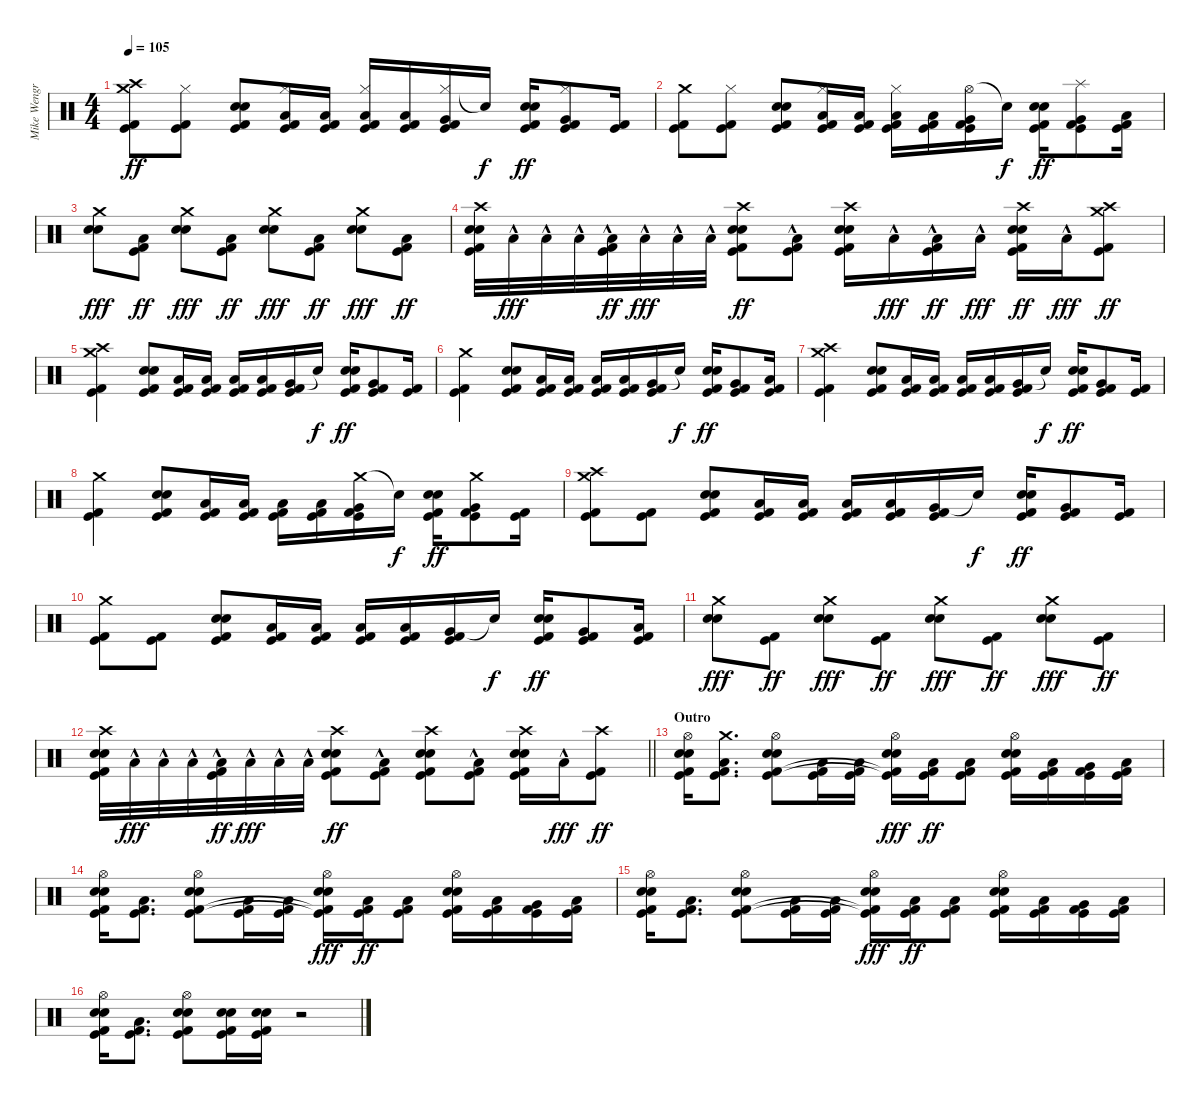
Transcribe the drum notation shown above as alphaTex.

\track ("Mike Wengren (Drums)" "Mike Wengr") {instrument percussion}
\staff {score}
\articulation defaults
\ts (4 4)
\tempo 105
\clef neutral
\ks c
("Crash medium (hit)" "Crash high (hit)" "Kick (hit) 2" "Kick (hit)").8{dy ff} ("Hi-Hat (closed)" "Kick (hit) 2" "Kick (hit)").8 ("Electric Snare (hit)" "Snare (hit) 2" "Kick (hit) 2" "Kick (hit)").8 ("Hi-Hat (closed)" "Low Floor Tom (hit)" "Kick (hit) 2" "Kick (hit)").16 ("Low Floor Tom (hit)" "Kick (hit) 2" "Kick (hit)").16 ("Hi-Hat (closed)" "Low Floor Tom (hit)" "Kick (hit) 2" "Kick (hit)").16 ("Low Floor Tom (hit)" "Kick (hit) 2" "Kick (hit)").16 ("Hi-Hat (closed)" "Very Low Tom (hit)" "Kick (hit) 2" "Kick (hit)").16 "Snare (hit)"{t}.16{dy f} ("Electric Snare (hit)" "Snare (hit) 2" "Kick (hit) 2" "Kick (hit)").16{dy ff} ("Hi-Hat (closed)" "Very Low Tom (hit)" "Kick (hit) 2" "Kick (hit)").8 ("Kick (hit) 2" "Kick (hit)").16 |
("Crash medium (hit)" "Kick (hit) 2" "Kick (hit)").8 ("Hi-Hat (closed)" "Kick (hit) 2" "Kick (hit)").8 ("Electric Snare (hit)" "Snare (hit) 2" "Kick (hit) 2" "Kick (hit)").8 ("Hi-Hat (closed)" "Low Floor Tom (hit)" "Kick (hit) 2" "Kick (hit)").16 ("Low Floor Tom (hit)" "Kick (hit) 2" "Kick (hit)").16 ("Hi-Hat (closed)" "Low Floor Tom (hit)" "Kick (hit) 2" "Kick (hit)").16 ("Low Floor Tom (hit)" "Kick (hit) 2" "Kick (hit)").16 ("Hi-Hat (open)" "Very Low Tom (hit)" "Kick (hit) 2" "Kick (hit)").16 "Snare (hit)"{t}.16{dy f} ("Electric Snare (hit)" "Snare (hit) 2" "Kick (hit) 2" "Kick (hit)").16{dy ff} ("Splash (hit)" "Very Low Tom (hit)" "Kick (hit) 2" "Kick (hit)").8 ("Low Floor Tom (hit)" "Kick (hit) 2" "Kick (hit)").16 |
("Crash medium (hit)" "Electric Snare (hit)" "Snare (hit) 2").8{dy fff} ("Low Floor Tom (hit)" "Kick (hit) 2" "Kick (hit)").8{dy ff} ("Crash medium (hit)" "Electric Snare (hit)" "Snare (hit) 2").8{dy fff} ("Low Floor Tom (hit)" "Kick (hit) 2" "Kick (hit)").8{dy ff} ("Crash medium (hit)" "Electric Snare (hit)" "Snare (hit) 2").8{dy fff} ("Low Floor Tom (hit)" "Kick (hit) 2" "Kick (hit)").8{dy ff} ("Crash medium (hit)" "Electric Snare (hit)" "Snare (hit) 2").8{dy fff} ("Low Floor Tom (hit)" "Kick (hit) 2" "Kick (hit)").8{dy ff} |
("Crash high (hit)" "Electric Snare (hit)" "Snare (hit) 2" "Kick (hit) 2" "Kick (hit)").32 "Low Floor Tom (hit)"{hac}.32{dy fff} "Low Floor Tom (hit)"{hac}.32 "Low Floor Tom (hit)"{hac}.32 ("Low Floor Tom (hit)"{hac} "Kick (hit) 2" "Kick (hit)").32{dy ff} "Low Floor Tom (hit)"{hac}.32{dy fff} "Low Floor Tom (hit)"{hac}.32 "Low Floor Tom (hit)"{hac}.32 ("Crash high (hit)" "Electric Snare (hit)" "Snare (hit) 2" "Kick (hit) 2" "Kick (hit)").8{dy ff} ("Low Floor Tom (hit)"{hac} "Kick (hit) 2" "Kick (hit)").8 ("Crash high (hit)" "Electric Snare (hit)" "Snare (hit) 2" "Kick (hit) 2" "Kick (hit)").16 "Low Floor Tom (hit)"{hac}.16{dy fff} ("Low Floor Tom (hit)"{hac} "Kick (hit) 2" "Kick (hit)").16{dy ff} "Low Floor Tom (hit)"{hac}.16{dy fff} ("Crash high (hit)" "Electric Snare (hit)" "Snare (hit) 2" "Kick (hit) 2" "Kick (hit)").16{dy ff} "Low Floor Tom (hit)"{hac}.16{dy fff} ("Crash medium (hit)" "Crash high (hit)" "Kick (hit) 2" "Kick (hit)").8{dy ff} |
("Crash medium (hit)" "Crash high (hit)" "Kick (hit) 2" "Kick (hit)").4 ("Electric Snare (hit)" "Snare (hit) 2" "Kick (hit) 2" "Kick (hit)").8 ("Low Floor Tom (hit)" "Kick (hit) 2" "Kick (hit)").16 ("Low Floor Tom (hit)" "Kick (hit) 2" "Kick (hit)").16 ("Low Floor Tom (hit)" "Kick (hit) 2" "Kick (hit)").16 ("Low Floor Tom (hit)" "Kick (hit) 2" "Kick (hit)").16 ("Very Low Tom (hit)" "Kick (hit) 2" "Kick (hit)").16 "Snare (hit)"{t}.16{dy f} ("Electric Snare (hit)" "Snare (hit) 2" "Kick (hit) 2" "Kick (hit)").16{dy ff} ("Very Low Tom (hit)" "Kick (hit) 2" "Kick (hit)").8 ("Kick (hit) 2" "Kick (hit)").16 |
("Crash medium (hit)" "Kick (hit) 2" "Kick (hit)").4 ("Electric Snare (hit)" "Snare (hit) 2" "Kick (hit) 2" "Kick (hit)").8 ("Low Floor Tom (hit)" "Kick (hit) 2" "Kick (hit)").16 ("Low Floor Tom (hit)" "Kick (hit) 2" "Kick (hit)").16 ("Low Floor Tom (hit)" "Kick (hit) 2" "Kick (hit)").16 ("Low Floor Tom (hit)" "Kick (hit) 2" "Kick (hit)").16 ("Very Low Tom (hit)" "Kick (hit) 2" "Kick (hit)").16 "Snare (hit)"{t}.16{dy f} ("Electric Snare (hit)" "Snare (hit) 2" "Kick (hit) 2" "Kick (hit)").16{dy ff} ("Very Low Tom (hit)" "Kick (hit) 2" "Kick (hit)").8 ("Low Floor Tom (hit)" "Kick (hit) 2" "Kick (hit)").16 |
("Crash medium (hit)" "Crash high (hit)" "Kick (hit) 2" "Kick (hit)").4 ("Electric Snare (hit)" "Snare (hit) 2" "Kick (hit) 2" "Kick (hit)").8 ("Low Floor Tom (hit)" "Kick (hit) 2" "Kick (hit)").16 ("Low Floor Tom (hit)" "Kick (hit) 2" "Kick (hit)").16 ("Low Floor Tom (hit)" "Kick (hit) 2" "Kick (hit)").16 ("Low Floor Tom (hit)" "Kick (hit) 2" "Kick (hit)").16 ("Very Low Tom (hit)" "Kick (hit) 2" "Kick (hit)").16 "Snare (hit)"{t}.16{dy f} ("Electric Snare (hit)" "Snare (hit) 2" "Kick (hit) 2" "Kick (hit)").16{dy ff} ("Very Low Tom (hit)" "Kick (hit) 2" "Kick (hit)").8 ("Kick (hit) 2" "Kick (hit)").16 |
("Crash medium (hit)" "Kick (hit) 2" "Kick (hit)").4 ("Electric Snare (hit)" "Snare (hit) 2" "Kick (hit) 2" "Kick (hit)").8 ("Low Floor Tom (hit)" "Kick (hit) 2" "Kick (hit)").16 ("Low Floor Tom (hit)" "Kick (hit) 2" "Kick (hit)").16 ("Low Floor Tom (hit)" "Kick (hit) 2" "Kick (hit)").16 ("Low Floor Tom (hit)" "Kick (hit) 2" "Kick (hit)").16 ("Crash medium (hit)" "Very Low Tom (hit)" "Kick (hit) 2" "Kick (hit)").16 "Snare (hit)"{t}.16{dy f} ("Electric Snare (hit)" "Snare (hit) 2" "Kick (hit) 2" "Kick (hit)").16{dy ff} ("Crash medium (hit)" "Very Low Tom (hit)" "Kick (hit) 2" "Kick (hit)").8 ("Kick (hit) 2" "Kick (hit)").16 |
("Crash medium (hit)" "Crash high (hit)" "Kick (hit) 2" "Kick (hit)").8 ("Kick (hit) 2" "Kick (hit)").8 ("Electric Snare (hit)" "Snare (hit) 2" "Kick (hit) 2" "Kick (hit)").8 ("Low Floor Tom (hit)" "Kick (hit) 2" "Kick (hit)").16 ("Low Floor Tom (hit)" "Kick (hit) 2" "Kick (hit)").16 ("Low Floor Tom (hit)" "Kick (hit) 2" "Kick (hit)").16 ("Low Floor Tom (hit)" "Kick (hit) 2" "Kick (hit)").16 ("Very Low Tom (hit)" "Kick (hit) 2" "Kick (hit)").16 "Snare (hit)"{t}.16{dy f} ("Electric Snare (hit)" "Snare (hit) 2" "Kick (hit) 2" "Kick (hit)").16{dy ff} ("Very Low Tom (hit)" "Kick (hit) 2" "Kick (hit)").8 ("Kick (hit) 2" "Kick (hit)").16 |
("Crash medium (hit)" "Kick (hit) 2" "Kick (hit)").8 ("Kick (hit) 2" "Kick (hit)").8 ("Electric Snare (hit)" "Snare (hit) 2" "Kick (hit) 2" "Kick (hit)").8 ("Low Floor Tom (hit)" "Kick (hit) 2" "Kick (hit)").16 ("Low Floor Tom (hit)" "Kick (hit) 2" "Kick (hit)").16 ("Low Floor Tom (hit)" "Kick (hit) 2" "Kick (hit)").16 ("Low Floor Tom (hit)" "Kick (hit) 2" "Kick (hit)").16 ("Very Low Tom (hit)" "Kick (hit) 2" "Kick (hit)").16 "Snare (hit)"{t}.16{dy f} ("Electric Snare (hit)" "Snare (hit) 2" "Kick (hit) 2" "Kick (hit)").16{dy ff} ("Very Low Tom (hit)" "Kick (hit) 2" "Kick (hit)").8 ("Low Floor Tom (hit)" "Kick (hit) 2" "Kick (hit)").16 |
("Crash medium (hit)" "Electric Snare (hit)" "Snare (hit) 2").8{dy fff} ("Kick (hit) 2" "Kick (hit)").8{dy ff} ("Crash medium (hit)" "Electric Snare (hit)" "Snare (hit) 2").8{dy fff} ("Kick (hit) 2" "Kick (hit)").8{dy ff} ("Crash medium (hit)" "Electric Snare (hit)" "Snare (hit) 2").8{dy fff} ("Kick (hit) 2" "Kick (hit)").8{dy ff} ("Crash medium (hit)" "Electric Snare (hit)" "Snare (hit) 2").8{dy fff} ("Kick (hit) 2" "Kick (hit)").8{dy ff} |
\barLineRight lightlight
("Crash high (hit)" "Electric Snare (hit)" "Snare (hit) 2" "Kick (hit) 2" "Kick (hit)").32 "Low Floor Tom (hit)"{hac}.32{dy fff} "Low Floor Tom (hit)"{hac}.32 "Low Floor Tom (hit)"{hac}.32 ("Low Floor Tom (hit)"{hac} "Kick (hit) 2" "Kick (hit)").32{dy ff} "Low Floor Tom (hit)"{hac}.32{dy fff} "Low Floor Tom (hit)"{hac}.32 "Low Floor Tom (hit)"{hac}.32 ("Crash high (hit)" "Electric Snare (hit)" "Snare (hit) 2" "Kick (hit) 2" "Kick (hit)").8{dy ff} ("Low Floor Tom (hit)"{hac} "Kick (hit) 2" "Kick (hit)").8 ("Crash high (hit)" "Electric Snare (hit)" "Snare (hit) 2" "Kick (hit) 2" "Kick (hit)").8 ("Low Floor Tom (hit)"{hac} "Kick (hit) 2" "Kick (hit)").8 ("Crash high (hit)" "Electric Snare (hit)" "Snare (hit) 2" "Kick (hit) 2" "Kick (hit)").16 "Low Floor Tom (hit)"{hac}.16{dy fff} ("Crash high (hit)" "Kick (hit) 2" "Kick (hit)").8{dy ff} |
\section ("" "Outro")
("Hi-Hat (open)" "Electric Snare (hit)" "Snare (hit) 2" "Kick (hit) 2" "Kick (hit)").16 ("Crash medium (hit)" "Low Floor Tom (hit)" "Kick (hit) 2" "Kick (hit)").8{d} ("Hi-Hat (open)" "Electric Snare (hit)" "Snare (hit) 2" "Kick (hit) 2" "Kick (hit)").8 ("Low Floor Tom (hit)" "Kick (hit) 2" "Kick (hit)").16 ("Low Floor Tom (hit)" "Kick (hit) 2" "Kick (hit)").16 ("Hi-Hat (open)" "Electric Snare (hit)" "Snare (hit) 2" "Kick (hit) 2"{t} "Kick (hit)"{t}).16{dy fff} ("Low Floor Tom (hit)" "Kick (hit) 2" "Kick (hit)").16{dy ff} ("Low Floor Tom (hit)" "Kick (hit) 2" "Kick (hit)").8 ("Hi-Hat (open)" "Electric Snare (hit)" "Snare (hit) 2" "Kick (hit) 2" "Kick (hit)").16 ("Low Floor Tom (hit)" "Kick (hit) 2" "Kick (hit)").16 ("Very Low Tom (hit)" "Kick (hit) 2" "Kick (hit)").16 ("Low Tom (hit)" "Kick (hit) 2" "Kick (hit)").16 |
("Hi-Hat (open)" "Electric Snare (hit)" "Snare (hit) 2" "Kick (hit) 2" "Kick (hit)").16 ("Low Floor Tom (hit)" "Kick (hit) 2" "Kick (hit)").8{d} ("Hi-Hat (open)" "Electric Snare (hit)" "Snare (hit) 2" "Kick (hit) 2" "Kick (hit)").8 ("Low Floor Tom (hit)" "Kick (hit) 2" "Kick (hit)").16 ("Low Floor Tom (hit)" "Kick (hit) 2" "Kick (hit)").16 ("Hi-Hat (open)" "Electric Snare (hit)" "Snare (hit) 2" "Kick (hit) 2"{t} "Kick (hit)"{t}).16{dy fff} ("Low Floor Tom (hit)" "Kick (hit) 2" "Kick (hit)").16{dy ff} ("Low Floor Tom (hit)" "Kick (hit) 2" "Kick (hit)").8 ("Hi-Hat (open)" "Electric Snare (hit)" "Snare (hit) 2" "Kick (hit) 2" "Kick (hit)").16 ("Low Floor Tom (hit)" "Kick (hit) 2" "Kick (hit)").16 ("Very Low Tom (hit)" "Kick (hit) 2" "Kick (hit)").16 ("Low Tom (hit)" "Kick (hit) 2" "Kick (hit)").16 |
("Hi-Hat (open)" "Electric Snare (hit)" "Snare (hit) 2" "Kick (hit) 2" "Kick (hit)").16 ("Low Floor Tom (hit)" "Kick (hit) 2" "Kick (hit)").8{d} ("Hi-Hat (open)" "Electric Snare (hit)" "Snare (hit) 2" "Kick (hit) 2" "Kick (hit)").8 ("Low Floor Tom (hit)" "Kick (hit) 2" "Kick (hit)").16 ("Low Floor Tom (hit)" "Kick (hit) 2" "Kick (hit)").16 ("Hi-Hat (open)" "Electric Snare (hit)" "Snare (hit) 2" "Kick (hit) 2"{t} "Kick (hit)"{t}).16{dy fff} ("Low Floor Tom (hit)" "Kick (hit) 2" "Kick (hit)").16{dy ff} ("Low Floor Tom (hit)" "Kick (hit) 2" "Kick (hit)").8 ("Hi-Hat (open)" "Electric Snare (hit)" "Snare (hit) 2" "Kick (hit) 2" "Kick (hit)").16 ("Low Floor Tom (hit)" "Kick (hit) 2" "Kick (hit)").16 ("Very Low Tom (hit)" "Kick (hit) 2" "Kick (hit)").16 ("Low Tom (hit)" "Kick (hit) 2" "Kick (hit)").16 |
("Hi-Hat (open)" "Electric Snare (hit)" "Snare (hit) 2" "Kick (hit) 2" "Kick (hit)").16 ("Low Floor Tom (hit)" "Kick (hit) 2" "Kick (hit)").8{d} ("Hi-Hat (open)" "Electric Snare (hit)" "Snare (hit) 2" "Kick (hit) 2" "Kick (hit)").8 ("Electric Snare (hit)" "Snare (hit) 2" "Kick (hit) 2" "Kick (hit)").16 ("Electric Snare (hit)" "Snare (hit) 2" "Kick (hit) 2" "Kick (hit)").16 r.2
